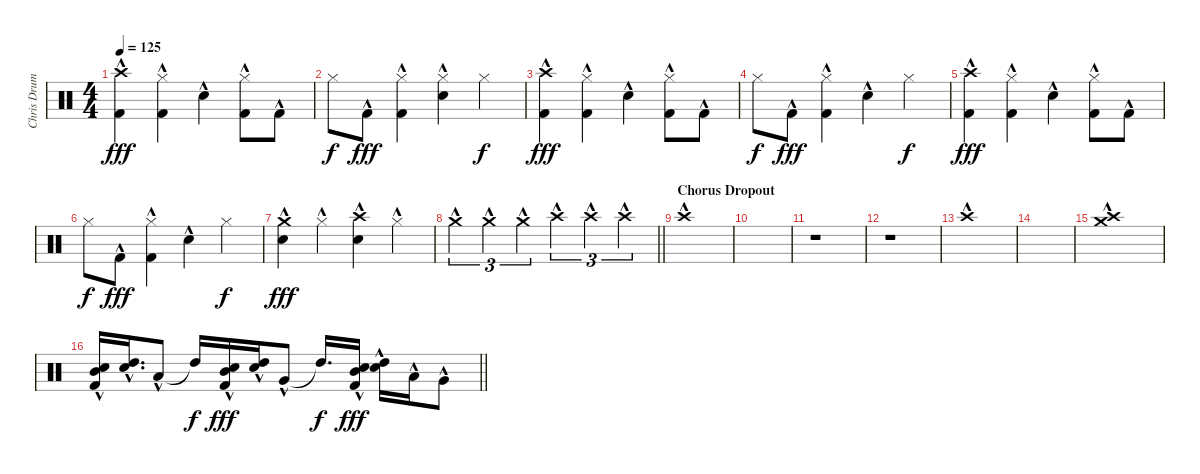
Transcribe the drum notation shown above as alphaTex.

\track ("Chris Drums" "Chris Drum") {instrument percussion}
\staff {score}
\articulation defaults
\ts (4 4)
\tempo 125
\clef neutral
\ks c
("Crash high (hit)" "Kick (hit) 2"{hac}).4{dy fff} ("Hi-Hat (closed)" "Kick (hit) 2"{hac}).4 "Snare (hit) 2"{hac}.4 ("Hi-Hat (closed)" "Kick (hit) 2"{hac}).8 "Kick (hit) 2"{hac}.8 |
"Hi-Hat (closed)".8{dy f} "Kick (hit) 2"{hac}.8{dy fff} ("Hi-Hat (closed)" "Kick (hit) 2"{hac}).4 ("Hi-Hat (closed)" "Snare (hit) 2"{hac}).4 "Hi-Hat (closed)".4{dy f} |
("Crash high (hit)" "Kick (hit) 2"{hac}).4{dy fff} ("Hi-Hat (closed)" "Kick (hit) 2"{hac}).4 "Snare (hit) 2"{hac}.4 ("Hi-Hat (closed)" "Kick (hit) 2"{hac}).8 "Kick (hit) 2"{hac}.8 |
"Hi-Hat (closed)".8{dy f} "Kick (hit) 2"{hac}.8{dy fff} ("Hi-Hat (closed)" "Kick (hit) 2"{hac}).4 "Snare (hit) 2"{hac}.4 "Hi-Hat (closed)".4{dy f} |
("Crash high (hit)" "Kick (hit) 2"{hac}).4{dy fff} ("Hi-Hat (closed)" "Kick (hit) 2"{hac}).4 "Snare (hit) 2"{hac}.4 ("Hi-Hat (closed)" "Kick (hit) 2"{hac}).8 "Kick (hit) 2"{hac}.8 |
"Hi-Hat (closed)".8{dy f} "Kick (hit) 2"{hac}.8{dy fff} ("Hi-Hat (closed)" "Kick (hit) 2"{hac}).4 "Snare (hit) 2"{hac}.4 "Hi-Hat (closed)".4{dy f} |
("Crash medium (hit)"{hac} "Snare (hit) 2"{hac}).4{dy fff} "Hi-Hat (closed)"{hac}.4 ("Crash high (hit)"{hac} "Snare (hit) 2"{hac}).4 "Hi-Hat (closed)"{hac}.4 |
\barLineRight lightlight "Crash medium (hit)"{hac}.4{tu (3 2)} "Crash medium (hit)"{hac}.4{tu (3 2)} "Crash medium (hit)"{hac}.4{tu (3 2)} "Crash high (hit)"{hac}.4{tu (3 2)} "Crash high (hit)"{hac}.4{tu (3 2)} "Crash high (hit)"{hac}.4{tu (3 2)}
|
\section ("" "Chorus Dropout")
"Crash high (hit)"{hac}.1 |
|
r.1 |
r.1 |
"Crash high (hit)"{hac}.1 |
|
("Crash medium (hit)"{hac} "Crash high (hit)"{hac}).1 |
\barLineRight lightlight
("Snare (hit) 2" "Mid Tom (hit)" "Kick (hit) 2"{hac}).16 ("Snare (hit) 2"{hac} "High Tom (hit)").16{d} "Low Tom (hit)"{hac}.8 "High Tom (hit)"{t}.16{dy f} ("Snare (hit) 2" "Mid Tom (hit)" "Kick (hit) 2"{hac}).16{dy fff} ("Snare (hit) 2"{hac} "High Tom (hit)").16 "Very Low Tom (hit)"{hac}.8 "High Tom (hit)"{t}.16{d dy f} ("Snare (hit) 2" "Mid Tom (hit)" "Kick (hit) 2"{hac}).16{dy fff} ("Snare (hit) 2"{hac} "High Tom (hit)").16 "Low Tom (hit)"{hac}.16 "Very Low Tom (hit)"{hac}.8
